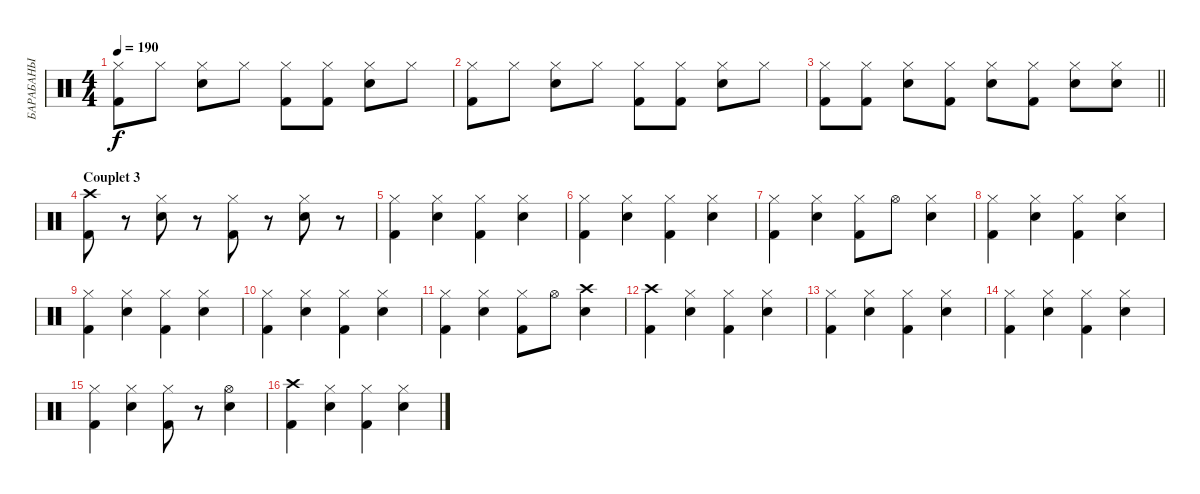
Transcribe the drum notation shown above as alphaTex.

\track ("БАРАБАНЫ" "БАРАБАНЫ") {instrument percussion}
\staff {score}
\articulation defaults
\ts (4 4)
\tempo 190
\clef neutral
\ks c
("Hi-Hat (closed)" "Kick (hit) 2").8{dy f} "Hi-Hat (closed)".8 ("Hi-Hat (closed)" "Snare (hit) 2").8 "Hi-Hat (closed)".8 ("Hi-Hat (closed)" "Kick (hit) 2").8 ("Hi-Hat (closed)" "Kick (hit) 2").8 ("Hi-Hat (closed)" "Snare (hit) 2").8 "Hi-Hat (closed)".8 |
("Hi-Hat (closed)" "Kick (hit) 2").8 "Hi-Hat (closed)".8 ("Hi-Hat (closed)" "Snare (hit) 2").8 "Hi-Hat (closed)".8 ("Hi-Hat (closed)" "Kick (hit) 2").8 ("Hi-Hat (closed)" "Kick (hit) 2").8 ("Hi-Hat (closed)" "Snare (hit) 2").8 "Hi-Hat (closed)".8 |
\barLineRight lightlight
("Hi-Hat (closed)" "Kick (hit) 2").8 ("Hi-Hat (closed)" "Kick (hit) 2").8 ("Hi-Hat (closed)" "Snare (hit) 2").8 ("Hi-Hat (closed)" "Kick (hit) 2").8 ("Hi-Hat (closed)" "Snare (hit) 2").8 ("Hi-Hat (closed)" "Kick (hit) 2").8 ("Hi-Hat (closed)" "Snare (hit) 2").8 ("Hi-Hat (closed)" "Snare (hit) 2").8 |
\section ("" "Couplet 3")
("Crash high (hit)" "Kick (hit) 2").8 r.8 ("Hi-Hat (closed)" "Snare (hit) 2").8 r.8 ("Hi-Hat (closed)" "Kick (hit) 2").8 r.8 ("Hi-Hat (closed)" "Snare (hit) 2").8 r.8 |
("Hi-Hat (closed)" "Kick (hit) 2").4 ("Hi-Hat (closed)" "Snare (hit) 2").4 ("Hi-Hat (closed)" "Kick (hit) 2").4 ("Hi-Hat (closed)" "Snare (hit) 2").4 |
("Hi-Hat (closed)" "Kick (hit) 2").4 ("Hi-Hat (closed)" "Snare (hit) 2").4 ("Hi-Hat (closed)" "Kick (hit) 2").4 ("Hi-Hat (closed)" "Snare (hit) 2").4 |
("Hi-Hat (closed)" "Kick (hit) 2").4 ("Hi-Hat (closed)" "Snare (hit) 2").4 ("Hi-Hat (closed)" "Kick (hit) 2").8 "Hi-Hat (open)".8 ("Hi-Hat (closed)" "Snare (hit) 2").4 |
("Hi-Hat (closed)" "Kick (hit) 2").4 ("Hi-Hat (closed)" "Snare (hit) 2").4 ("Hi-Hat (closed)" "Kick (hit) 2").4 ("Hi-Hat (closed)" "Snare (hit) 2").4 |
("Hi-Hat (closed)" "Kick (hit) 2").4 ("Hi-Hat (closed)" "Snare (hit) 2").4 ("Hi-Hat (closed)" "Kick (hit) 2").4 ("Hi-Hat (closed)" "Snare (hit) 2").4 |
("Hi-Hat (closed)" "Kick (hit) 2").4 ("Hi-Hat (closed)" "Snare (hit) 2").4 ("Hi-Hat (closed)" "Kick (hit) 2").4 ("Hi-Hat (closed)" "Snare (hit) 2").4 |
("Hi-Hat (closed)" "Kick (hit) 2").4 ("Hi-Hat (closed)" "Snare (hit) 2").4 ("Hi-Hat (closed)" "Kick (hit) 2").8 "Hi-Hat (open)".8 ("Crash high (hit)" "Snare (hit) 2").4 |
("Crash high (hit)" "Kick (hit) 2").4 ("Hi-Hat (closed)" "Snare (hit) 2").4 ("Hi-Hat (closed)" "Kick (hit) 2").4 ("Hi-Hat (closed)" "Snare (hit) 2").4 |
("Hi-Hat (closed)" "Kick (hit) 2").4 ("Hi-Hat (closed)" "Snare (hit) 2").4 ("Hi-Hat (closed)" "Kick (hit) 2").4 ("Hi-Hat (closed)" "Snare (hit) 2").4 |
("Hi-Hat (closed)" "Kick (hit) 2").4 ("Hi-Hat (closed)" "Snare (hit) 2").4 ("Hi-Hat (closed)" "Kick (hit) 2").4 ("Hi-Hat (closed)" "Snare (hit) 2").4 |
("Hi-Hat (closed)" "Kick (hit) 2").4 ("Hi-Hat (closed)" "Snare (hit) 2").4 ("Hi-Hat (closed)" "Kick (hit) 2").8 r.8 ("Hi-Hat (open)" "Snare (hit) 2").4 |
("Crash high (hit)" "Kick (hit) 2").4 ("Hi-Hat (closed)" "Snare (hit) 2").4 ("Hi-Hat (closed)" "Kick (hit) 2").4 ("Hi-Hat (closed)" "Snare (hit) 2").4
